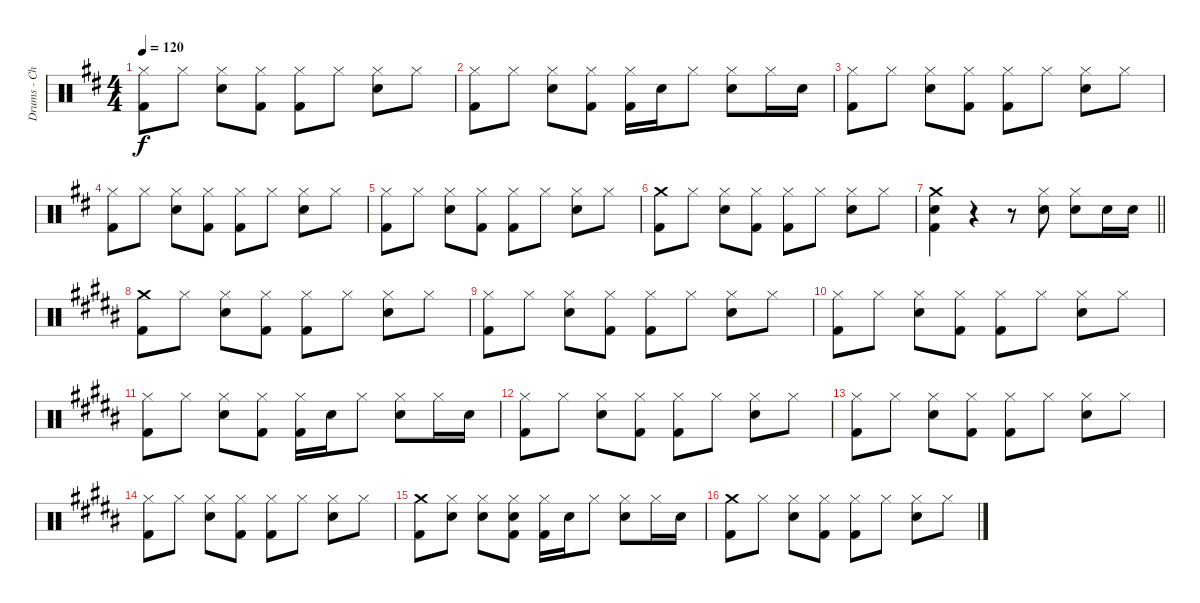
\track ("Drums - Choi Min Hwan" "Drums - Ch") {instrument percussion}
\staff {score}
\articulation defaults
\ts (4 4)
\tempo 120
\clef neutral
\ks bminor
("Hi-Hat (closed)" "Kick (hit) 2").8{dy f} "Hi-Hat (closed)".8 ("Hi-Hat (closed)" "Electric Snare (hit)").8 ("Hi-Hat (closed)" "Kick (hit) 2").8 ("Hi-Hat (closed)" "Kick (hit) 2").8 "Hi-Hat (closed)".8 ("Hi-Hat (closed)" "Electric Snare (hit)").8 "Hi-Hat (closed)".8 |
("Hi-Hat (closed)" "Kick (hit) 2").8 "Hi-Hat (closed)".8 ("Hi-Hat (closed)" "Electric Snare (hit)").8 ("Hi-Hat (closed)" "Kick (hit) 2").8 ("Hi-Hat (closed)" "Kick (hit) 2").16 "Electric Snare (hit)".16 "Hi-Hat (closed)".8 ("Hi-Hat (closed)" "Electric Snare (hit)").8 "Hi-Hat (closed)".16 "Electric Snare (hit)".16 |
("Hi-Hat (closed)" "Kick (hit) 2").8 "Hi-Hat (closed)".8 ("Hi-Hat (closed)" "Electric Snare (hit)").8 ("Hi-Hat (closed)" "Kick (hit) 2").8 ("Hi-Hat (closed)" "Kick (hit) 2").8 "Hi-Hat (closed)".8 ("Hi-Hat (closed)" "Electric Snare (hit)").8 "Hi-Hat (closed)".8 |
("Hi-Hat (closed)" "Kick (hit) 2").8 "Hi-Hat (closed)".8 ("Hi-Hat (closed)" "Electric Snare (hit)").8 ("Hi-Hat (closed)" "Kick (hit) 2").8 ("Hi-Hat (closed)" "Kick (hit) 2").8 "Hi-Hat (closed)".8 ("Hi-Hat (closed)" "Electric Snare (hit)").8 "Hi-Hat (closed)".8 |
("Hi-Hat (closed)" "Kick (hit) 2").8 "Hi-Hat (closed)".8 ("Hi-Hat (closed)" "Electric Snare (hit)").8 ("Hi-Hat (closed)" "Kick (hit) 2").8 ("Hi-Hat (closed)" "Kick (hit) 2").8 "Hi-Hat (closed)".8 ("Hi-Hat (closed)" "Electric Snare (hit)").8 "Hi-Hat (closed)".8 |
("Crash medium (hit)" "Kick (hit) 2").8 "Hi-Hat (closed)".8 ("Hi-Hat (closed)" "Electric Snare (hit)").8 ("Hi-Hat (closed)" "Kick (hit) 2").8 ("Hi-Hat (closed)" "Kick (hit) 2").8 "Hi-Hat (closed)".8 ("Hi-Hat (closed)" "Electric Snare (hit)").8 "Hi-Hat (closed)".8 |
\barLineRight lightlight
("Crash medium (hit)" "Electric Snare (hit)" "Kick (hit) 2").4 r.4 r.8 ("Hi-Hat (closed)" "Electric Snare (hit)").8 ("Hi-Hat (closed)" "Electric Snare (hit)").8 "Electric Snare (hit)".16 "Electric Snare (hit)".16 |
\ks g#minor
("Crash medium (hit)" "Kick (hit) 2").8 "Hi-Hat (closed)".8 ("Hi-Hat (closed)" "Electric Snare (hit)").8 ("Hi-Hat (closed)" "Kick (hit) 2").8 ("Hi-Hat (closed)" "Kick (hit) 2").8 "Hi-Hat (closed)".8 ("Hi-Hat (closed)" "Electric Snare (hit)").8 "Hi-Hat (closed)".8 |
("Hi-Hat (closed)" "Kick (hit) 2").8 "Hi-Hat (closed)".8 ("Hi-Hat (closed)" "Electric Snare (hit)").8 ("Hi-Hat (closed)" "Kick (hit) 2").8 ("Hi-Hat (closed)" "Kick (hit) 2").8 "Hi-Hat (closed)".8 ("Hi-Hat (closed)" "Electric Snare (hit)").8 "Hi-Hat (closed)".8 |
("Hi-Hat (closed)" "Kick (hit) 2").8 "Hi-Hat (closed)".8 ("Hi-Hat (closed)" "Electric Snare (hit)").8 ("Hi-Hat (closed)" "Kick (hit) 2").8 ("Hi-Hat (closed)" "Kick (hit) 2").8 "Hi-Hat (closed)".8 ("Hi-Hat (closed)" "Electric Snare (hit)").8 "Hi-Hat (closed)".8 |
("Hi-Hat (closed)" "Kick (hit) 2").8 "Hi-Hat (closed)".8 ("Hi-Hat (closed)" "Electric Snare (hit)").8 ("Hi-Hat (closed)" "Kick (hit) 2").8 ("Hi-Hat (closed)" "Kick (hit) 2").16 "Electric Snare (hit)".16 "Hi-Hat (closed)".8 ("Hi-Hat (closed)" "Electric Snare (hit)").8 "Hi-Hat (closed)".16 "Electric Snare (hit)".16 |
("Hi-Hat (closed)" "Kick (hit) 2").8 "Hi-Hat (closed)".8 ("Hi-Hat (closed)" "Electric Snare (hit)").8 ("Hi-Hat (closed)" "Kick (hit) 2").8 ("Hi-Hat (closed)" "Kick (hit) 2").8 "Hi-Hat (closed)".8 ("Hi-Hat (closed)" "Electric Snare (hit)").8 "Hi-Hat (closed)".8 |
("Hi-Hat (closed)" "Kick (hit) 2").8 "Hi-Hat (closed)".8 ("Hi-Hat (closed)" "Electric Snare (hit)").8 ("Hi-Hat (closed)" "Kick (hit) 2").8 ("Hi-Hat (closed)" "Kick (hit) 2").8 "Hi-Hat (closed)".8 ("Hi-Hat (closed)" "Electric Snare (hit)").8 "Hi-Hat (closed)".8 |
("Hi-Hat (closed)" "Kick (hit) 2").8 "Hi-Hat (closed)".8 ("Hi-Hat (closed)" "Electric Snare (hit)").8 ("Hi-Hat (closed)" "Kick (hit) 2").8 ("Hi-Hat (closed)" "Kick (hit) 2").8 "Hi-Hat (closed)".8 ("Hi-Hat (closed)" "Electric Snare (hit)").8 "Hi-Hat (closed)".8 |
("Crash medium (hit)" "Kick (hit) 2").8 ("Hi-Hat (closed)" "Electric Snare (hit)").8 ("Hi-Hat (closed)" "Electric Snare (hit)").8 ("Hi-Hat (closed)" "Electric Snare (hit)" "Kick (hit) 2").8 ("Hi-Hat (closed)" "Kick (hit) 2").16 "Electric Snare (hit)".16 "Hi-Hat (closed)".8 ("Hi-Hat (closed)" "Electric Snare (hit)").8 "Hi-Hat (closed)".16 "Electric Snare (hit)".16 |
("Crash medium (hit)" "Kick (hit) 2").8 "Hi-Hat (closed)".8 ("Hi-Hat (closed)" "Electric Snare (hit)").8 ("Hi-Hat (closed)" "Kick (hit) 2").8 ("Hi-Hat (closed)" "Kick (hit) 2").8 "Hi-Hat (closed)".8 ("Hi-Hat (closed)" "Electric Snare (hit)").8 "Hi-Hat (closed)".8
